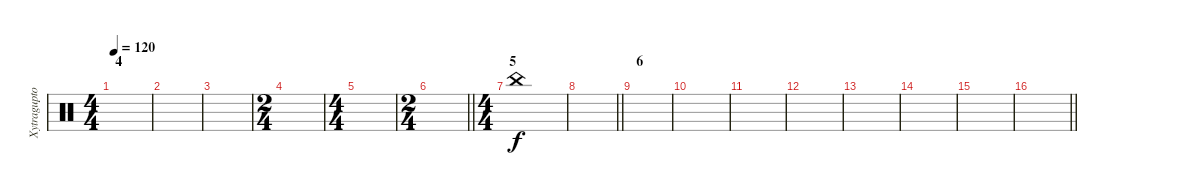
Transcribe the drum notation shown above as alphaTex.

\track ("Xytraguptor-Percussions" "Xytragupto") {instrument percussion}
\staff {score}
\articulation defaults
\ts (4 4)
\section ("" "4")
\tempo 120
\clef neutral
\ks c
|
|
|
\ts (2 4)
|
\ts (4 4)
|
\ts (2 4)
\barLineRight lightlight
|
\ts (4 4)
\section ("" "5")
"China (hit)".1 |
\barLineRight lightlight
|
\section ("" "6")
|
|
|
|
|
|
|
\barLineRight lightlight
